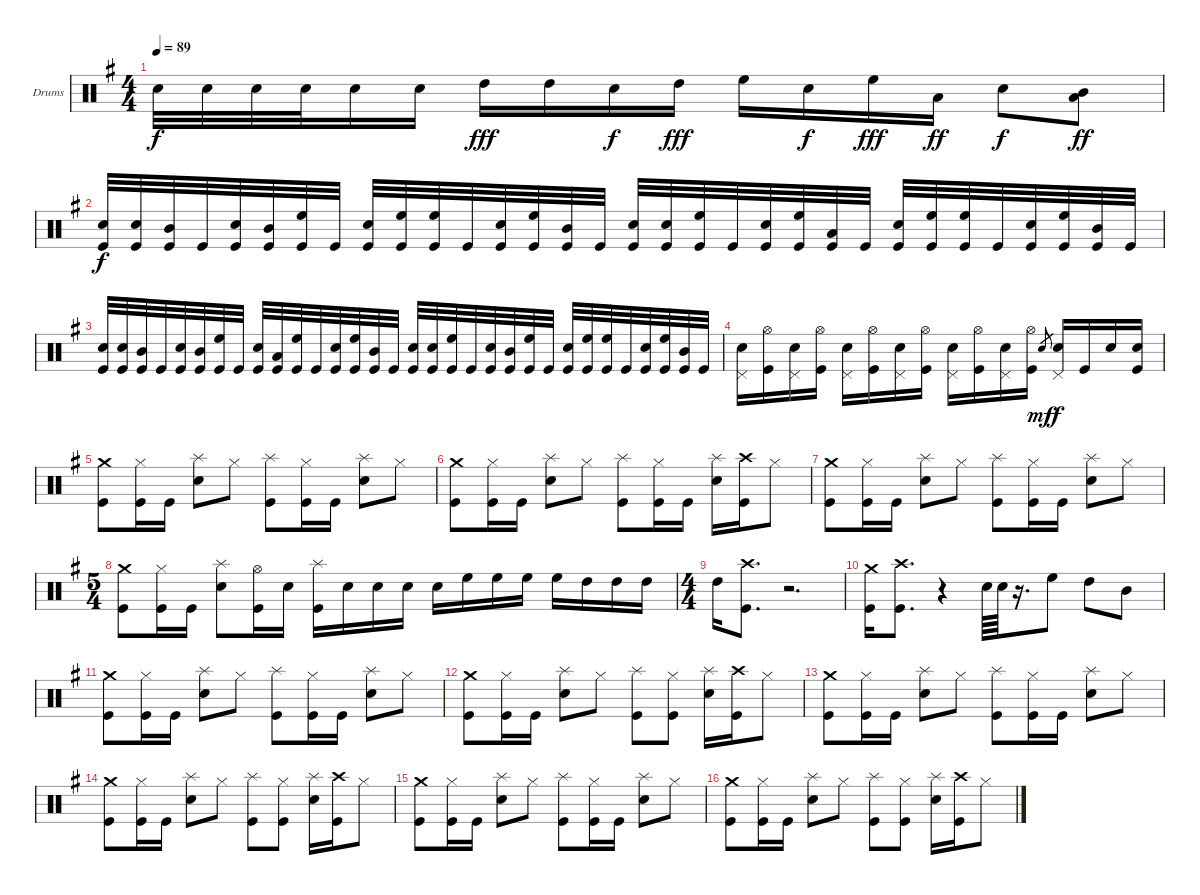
\bracketExtendMode groupsimilarinstruments
\firstSystemTrackNameOrientation horizontal
\otherSystemsTrackNameOrientation horizontal
\track ("Drumkit" "Drums") {instrument percussion}
\staff {score}
\articulation defaults
\ts (4 4)
\tempo 89
\clef neutral
\scale
0.449488
\ks eminor "Snare (hit) 2".32{dy f} "Snare (hit) 2".32 "Snare (hit) 2".32 "Snare (hit) 2".32 "Snare (hit) 2".16 "Snare (hit) 2".16 "High Tom (hit)".16{dy fff} "High Tom (hit)".16 "Snare (hit) 2".16{dy f} "High Tom (hit)".16{dy fff} "High Floor Tom (hit)".16 "Snare (hit) 2".16{dy f} "High Floor Tom (hit)".16{dy fff} "Low Tom (hit)".16{dy ff} "Snare (hit) 2".8{dy f}
("Mid Tom (hit)" "Low Tom (hit)").8{dy ff} |
\scale
0.550512 ("Kick (hit)" "Snare (hit) 2").32{dy f} ("Kick (hit)" "Snare (hit) 2").32 ("Kick (hit)" "Mid Tom (hit)").32 "Kick (hit)".32 ("Kick (hit)" "Snare (hit) 2").32 ("Kick (hit)" "Mid Tom (hit)").32 ("Kick (hit)" "High Floor Tom (hit)").32 "Kick (hit)".32 ("Kick (hit)" "Snare (hit) 2").32 ("Kick (hit)" "High Floor Tom (hit)").32 ("Kick (hit)" "High Floor Tom (hit)").32 "Kick (hit)".32 ("Kick (hit)" "Snare (hit) 2").32 ("Kick (hit)" "High Floor Tom (hit)").32 ("Kick (hit)" "Mid Tom (hit)").32 "Kick (hit)".32 ("Kick (hit)" "Snare (hit) 2").32 ("Kick (hit)" "Snare (hit) 2").32 ("Kick (hit)" "High Floor Tom (hit)").32 "Kick (hit)".32 ("Kick (hit)" "Snare (hit) 2").32 ("Kick (hit)" "High Floor Tom (hit)").32 ("Kick (hit)" "Low Tom (hit)").32 "Kick (hit)".32 ("Kick (hit)" "Snare (hit) 2").32 ("Kick (hit)" "High Floor Tom (hit)").32 ("Kick (hit)" "High Floor Tom (hit)").32 "Kick (hit)".32 ("Kick (hit)" "Snare (hit) 2").32 ("Kick (hit)" "High Floor Tom (hit)").32 ("Kick (hit)" "Mid Tom (hit)").32 "Kick (hit)".32 |
\scale
0.593997 ("Kick (hit)" "Snare (hit) 2").32 ("Kick (hit)" "Snare (hit) 2").32 ("Kick (hit)" "Mid Tom (hit)").32 "Kick (hit)".32 ("Kick (hit)" "Snare (hit) 2").32 ("Kick (hit)" "Mid Tom (hit)").32 ("Kick (hit)" "High Floor Tom (hit)").32 "Kick (hit)".32 ("Kick (hit)" "Snare (hit) 2").32 ("Kick (hit)" "Low Tom (hit)").32 ("Kick (hit)" "High Floor Tom (hit)").32 "Kick (hit)".32 ("Kick (hit)" "Snare (hit) 2").32 ("Kick (hit)" "High Floor Tom (hit)").32 ("Kick (hit)" "Mid Tom (hit)").32 "Kick (hit)".32 ("Kick (hit)" "Snare (hit) 2").32 ("Kick (hit)" "Snare (hit) 2").32 ("Kick (hit)" "High Floor Tom (hit)").32 "Kick (hit)".32 ("Kick (hit)" "Snare (hit) 2").32 ("Kick (hit)" "Mid Tom (hit)").32 ("Kick (hit)" "High Floor Tom (hit)").32 "Kick (hit)".32 ("Kick (hit)" "Snare (hit) 2").32 ("Kick (hit)" "High Floor Tom (hit)").32 ("Kick (hit)" "High Floor Tom (hit)").32 "Kick (hit)".32 ("Kick (hit)" "Snare (hit) 2").32 ("Kick (hit)" "High Floor Tom (hit)").32 ("Kick (hit)" "Mid Tom (hit)").32 "Kick (hit)".32 |
\scale
0.406003 ("Snare (hit) 2" "Pedal Hi-Hat (hit)").16 ("Kick (hit)" "Hi-Hat (open)").16 ("Snare (hit) 2" "Pedal Hi-Hat (hit)").16 ("Kick (hit)" "Hi-Hat (open)").16 ("Snare (hit) 2" "Pedal Hi-Hat (hit)").16 ("Kick (hit)" "Hi-Hat (open)").16 ("Snare (hit) 2" "Pedal Hi-Hat (hit)").16 ("Kick (hit)" "Hi-Hat (open)").16 ("Snare (hit) 2" "Pedal Hi-Hat (hit)").16 ("Kick (hit)" "Hi-Hat (open)").16 ("Snare (hit) 2" "Pedal Hi-Hat (hit)").16 ("Kick (hit)" "Hi-Hat (open)").16 "Snare (hit) 2".8{gr dy mf} ("Snare (hit) 2" "Pedal Hi-Hat (hit)").16{dy f} "Kick (hit)".16 "Snare (hit) 2".16 ("Kick (hit)" "Snare (hit) 2").16 |
\scale
0.488665 ("Kick (hit)" "Crash medium (hit)").8 ("Kick (hit)" "Hi-Hat (closed)").16 "Kick (hit)".16 ("Snare (hit) 2" "Splash (hit)").8 "Hi-Hat (closed)".8 ("Kick (hit)" "Splash (hit)").8 ("Kick (hit)" "Hi-Hat (closed)").16 "Kick (hit)".16 ("Snare (hit) 2" "Splash (hit)").8 "Hi-Hat (closed)".8 |
\scale
0.511335 ("Kick (hit)" "Crash medium (hit)").8 ("Kick (hit)" "Hi-Hat (closed)").16 "Kick (hit)".16 ("Snare (hit) 2" "Splash (hit)").8 "Hi-Hat (closed)".8 ("Kick (hit)" "Splash (hit)").8 ("Kick (hit)" "Hi-Hat (closed)").16 "Kick (hit)".16 ("Snare (hit) 2" "Splash (hit)").16 ("Kick (hit)" "Crash high (hit)").16 "Hi-Hat (closed)".8 |
\scale
0.369524 ("Kick (hit)" "Crash medium (hit)").8 ("Kick (hit)" "Hi-Hat (closed)").16 "Kick (hit)".16 ("Snare (hit) 2" "Splash (hit)").8 "Hi-Hat (closed)".8 ("Kick (hit)" "Splash (hit)").8 ("Kick (hit)" "Hi-Hat (closed)").16 "Kick (hit)".16 ("Snare (hit) 2" "Splash (hit)").8 "Hi-Hat (closed)".8 |
\ts (5 4)
\scale
0.630476 ("Kick (hit)" "Crash medium (hit)").8 ("Kick (hit)" "Hi-Hat (closed)").16 "Kick (hit)".16 ("Snare (hit) 2" "Splash (hit)").8 ("Kick (hit)" "Hi-Hat (open)").16 "Snare (hit) 2".16 ("Kick (hit)" "Splash (hit)").16 "Snare (hit) 2".16 "Snare (hit) 2".16 "Snare (hit) 2".16 "Snare (hit) 2".16 "High Floor Tom (hit)".16 "High Floor Tom (hit)".16 "High Floor Tom (hit)".16 "High Floor Tom (hit)".16 "High Tom (hit)".16 "High Tom (hit)".16 "High Tom (hit)".16 |
\ts (4 4)
\scale
0.364706 "High Tom (hit)".16 ("Kick (hit)" "Crash high (hit)").8{d} r.2{d} |
\scale
0.635294 ("Kick (hit)" "Crash medium (hit)").16 ("Kick (hit)" "Crash high (hit)").8{d} r.4 "Snare (hit) 2".64 "Snare (hit) 2".64 r.16{d} "High Floor Tom (hit)".8 "High Tom (hit)".8 "Mid Tom (hit)".8 |
\scale
0.5 ("Kick (hit)" "Crash medium (hit)").8 ("Kick (hit)" "Hi-Hat (closed)").16 "Kick (hit)".16 ("Snare (hit) 2" "Splash (hit)").8 "Hi-Hat (closed)".8 ("Kick (hit)" "Splash (hit)").8 ("Kick (hit)" "Hi-Hat (closed)").16 "Kick (hit)".16 ("Snare (hit) 2" "Splash (hit)").8 "Hi-Hat (closed)".8 |
\scale
0.5 ("Kick (hit)" "Crash medium (hit)").8 ("Kick (hit)" "Hi-Hat (closed)").16 "Kick (hit)".16 ("Snare (hit) 2" "Splash (hit)").8 "Hi-Hat (closed)".8 ("Kick (hit)" "Splash (hit)").8 ("Kick (hit)" "Hi-Hat (closed)").8 ("Snare (hit) 2" "Splash (hit)").16 ("Kick (hit)" "Crash high (hit)").16 "Hi-Hat (closed)".8 |
\scale
0.5 ("Kick (hit)" "Crash medium (hit)").8 ("Kick (hit)" "Hi-Hat (closed)").16 "Kick (hit)".16 ("Snare (hit) 2" "Splash (hit)").8 "Hi-Hat (closed)".8 ("Kick (hit)" "Splash (hit)").8 ("Kick (hit)" "Hi-Hat (closed)").16 "Kick (hit)".16 ("Snare (hit) 2" "Splash (hit)").8 "Hi-Hat (closed)".8 |
\scale
0.5 ("Kick (hit)" "Crash medium (hit)").8 ("Kick (hit)" "Hi-Hat (closed)").16 "Kick (hit)".16 ("Snare (hit) 2" "Splash (hit)").8 "Hi-Hat (closed)".8 ("Kick (hit)" "Splash (hit)").8 ("Kick (hit)" "Hi-Hat (closed)").8 ("Snare (hit) 2" "Splash (hit)").16 ("Kick (hit)" "Crash high (hit)").16 "Hi-Hat (closed)".8 |
\scale
0.5 ("Kick (hit)" "Crash medium (hit)").8 ("Kick (hit)" "Hi-Hat (closed)").16 "Kick (hit)".16 ("Snare (hit) 2" "Splash (hit)").8 "Hi-Hat (closed)".8 ("Kick (hit)" "Splash (hit)").8 ("Kick (hit)" "Hi-Hat (closed)").16 "Kick (hit)".16 ("Snare (hit) 2" "Splash (hit)").8 "Hi-Hat (closed)".8 |
\scale
0.5 ("Kick (hit)" "Crash medium (hit)").8 ("Kick (hit)" "Hi-Hat (closed)").16 "Kick (hit)".16 ("Snare (hit) 2" "Splash (hit)").8 "Hi-Hat (closed)".8 ("Kick (hit)" "Splash (hit)").8 ("Kick (hit)" "Hi-Hat (closed)").8 ("Snare (hit) 2" "Splash (hit)").16 ("Kick (hit)" "Crash high (hit)").16 "Hi-Hat (closed)".8
